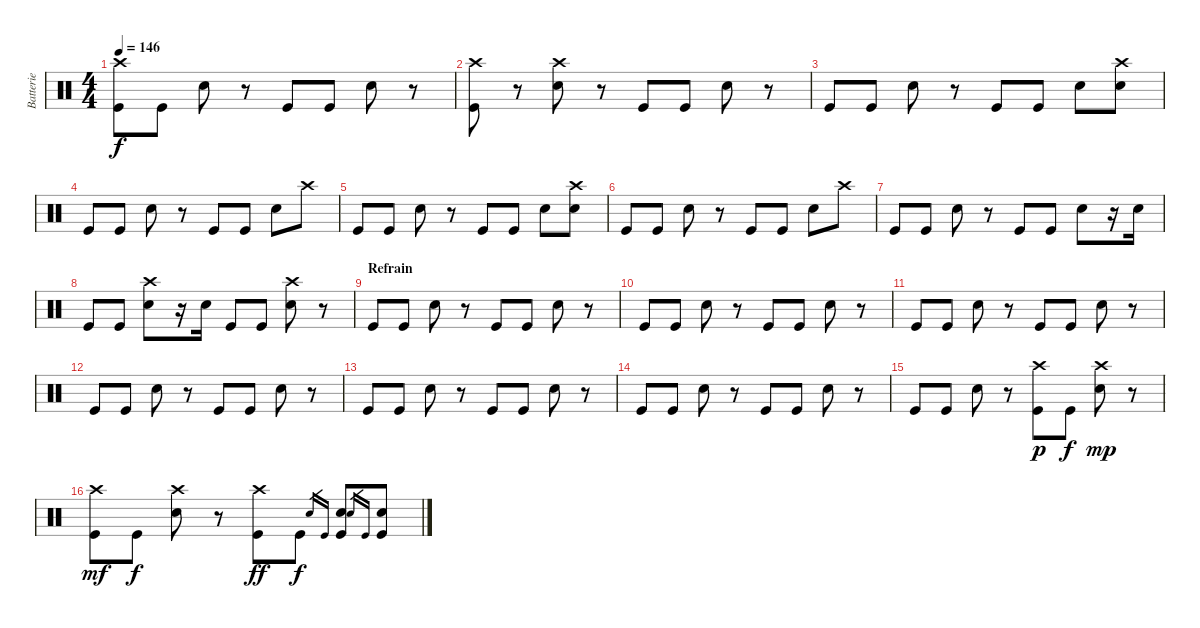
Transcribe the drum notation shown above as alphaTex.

\track ("Batterie" "Batterie") {instrument percussion}
\staff {score}
\articulation defaults
\ts (4 4)
\tempo 146
\clef neutral
\ks c
("Crash high (hit)" "Kick (hit)").8{dy f} "Kick (hit)".8 "Snare (hit) 2".8 r.8 "Kick (hit)".8 "Kick (hit)".8 "Snare (hit) 2".8 r.8 |
("Crash high (hit)" "Kick (hit)").8 r.8 ("Crash high (hit)" "Snare (hit) 2").8 r.8 "Kick (hit)".8 "Kick (hit)".8 "Snare (hit) 2".8 r.8 |
"Kick (hit)".8 "Kick (hit)".8 "Snare (hit) 2".8 r.8 "Kick (hit)".8 "Kick (hit)".8 "Snare (hit) 2".8 ("Crash high (hit)" "Snare (hit) 2").8 |
"Kick (hit)".8 "Kick (hit)".8 "Snare (hit) 2".8 r.8 "Kick (hit)".8 "Kick (hit)".8 "Snare (hit) 2".8 "Crash high (hit)".8 |
"Kick (hit)".8 "Kick (hit)".8 "Snare (hit) 2".8 r.8 "Kick (hit)".8 "Kick (hit)".8 "Snare (hit) 2".8 ("Crash high (hit)" "Snare (hit) 2").8 |
"Kick (hit)".8 "Kick (hit)".8 "Snare (hit) 2".8 r.8 "Kick (hit)".8 "Kick (hit)".8 "Snare (hit) 2".8 "Crash high (hit)".8 |
"Kick (hit)".8 "Kick (hit)".8 "Snare (hit) 2".8 r.8 "Kick (hit)".8 "Kick (hit)".8 "Snare (hit) 2".8 r.16 "Snare (hit) 2".16 |
"Kick (hit)".8 "Kick (hit)".8 ("Crash high (hit)" "Snare (hit) 2").8 r.16 "Snare (hit) 2".16 "Kick (hit)".8 "Kick (hit)".8 ("Crash high (hit)" "Snare (hit) 2").8 r.8 |
\section ("" "Refrain")
"Kick (hit)".8 "Kick (hit)".8 "Snare (hit) 2".8 r.8 "Kick (hit)".8 "Kick (hit)".8 "Snare (hit) 2".8 r.8 |
"Kick (hit)".8 "Kick (hit)".8 "Snare (hit) 2".8 r.8 "Kick (hit)".8 "Kick (hit)".8 "Snare (hit) 2".8 r.8 |
"Kick (hit)".8 "Kick (hit)".8 "Snare (hit) 2".8 r.8 "Kick (hit)".8 "Kick (hit)".8 "Snare (hit) 2".8 r.8 |
"Kick (hit)".8 "Kick (hit)".8 "Snare (hit) 2".8 r.8 "Kick (hit)".8 "Kick (hit)".8 "Snare (hit) 2".8 r.8 |
"Kick (hit)".8 "Kick (hit)".8 "Snare (hit) 2".8 r.8 "Kick (hit)".8 "Kick (hit)".8 "Snare (hit) 2".8 r.8 |
"Kick (hit)".8 "Kick (hit)".8 "Snare (hit) 2".8 r.8 "Kick (hit)".8 "Kick (hit)".8 "Snare (hit) 2".8 r.8 |
"Kick (hit)".8 "Kick (hit)".8 "Snare (hit) 2".8 r.8 ("Crash high (hit)" "Kick (hit)").8{dy p} "Kick (hit)".8{dy f} ("Crash high (hit)" "Snare (hit) 2").8{dy mp} r.8 |
("Crash high (hit)" "Kick (hit)").8{dy mf} "Kick (hit)".8{dy f} ("Crash high (hit)" "Snare (hit) 2").8 r.8 ("Crash high (hit)" "Kick (hit)").8{dy ff} "Kick (hit)".8{dy f} "Snare (hit) 2"{sl}.16{gr} "Kick (hit)".16{gr} ("Snare (hit) 2" "Kick (hit)").8 "Snare (hit) 2".16{gr} "Kick (hit)".16{gr} ("Snare (hit) 2" "Kick (hit)").8
